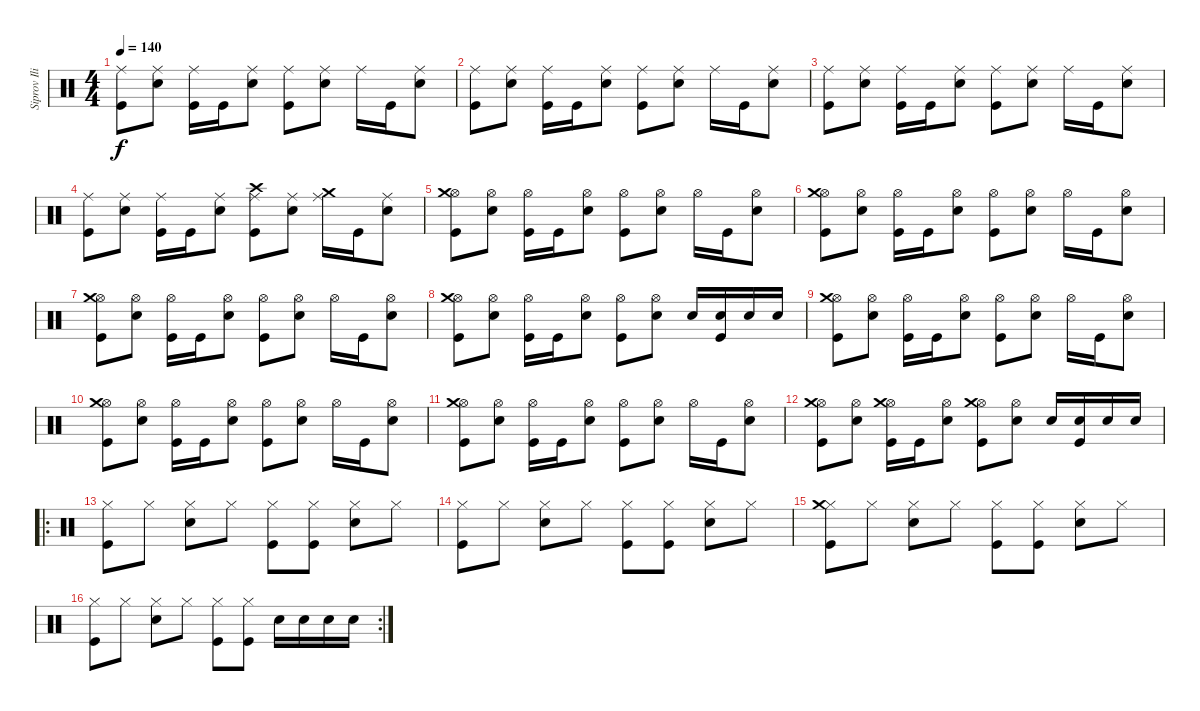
\track ("Siprov Iliya (DRUMS)" "Siprov Ili") {instrument percussion}
\staff {score}
\articulation defaults
\ts (4 4)
\tempo 140
\clef neutral
\ks c
("Ride (middle)" "Kick (hit)").8{dy f} ("Ride (middle)" "Electric Snare (hit)").8 ("Ride (middle)" "Kick (hit)").16 "Kick (hit)".16 ("Ride (middle)" "Electric Snare (hit)").8 ("Ride (middle)" "Kick (hit)").8 ("Ride (middle)" "Electric Snare (hit)").8 "Ride (middle)".16 "Kick (hit)".16 ("Ride (middle)" "Electric Snare (hit)").8 |
("Ride (middle)" "Kick (hit)").8 ("Ride (middle)" "Electric Snare (hit)").8 ("Ride (middle)" "Kick (hit)").16 "Kick (hit)".16 ("Ride (middle)" "Electric Snare (hit)").8 ("Ride (middle)" "Kick (hit)").8 ("Ride (middle)" "Electric Snare (hit)").8 "Ride (middle)".16 "Kick (hit)".16 ("Ride (middle)" "Electric Snare (hit)").8 |
("Ride (middle)" "Kick (hit)").8 ("Ride (middle)" "Electric Snare (hit)").8 ("Ride (middle)" "Kick (hit)").16 "Kick (hit)".16 ("Ride (middle)" "Electric Snare (hit)").8 ("Ride (middle)" "Kick (hit)").8 ("Ride (middle)" "Electric Snare (hit)").8 "Ride (middle)".16 "Kick (hit)".16 ("Ride (middle)" "Electric Snare (hit)").8 |
("Ride (middle)" "Kick (hit)").8 ("Ride (middle)" "Electric Snare (hit)").8 ("Ride (middle)" "Kick (hit)").16 "Kick (hit)".16 ("Ride (middle)" "Electric Snare (hit)").8 ("Ride (middle)" "Crash high (hit)" "Kick (hit)").8 ("Ride (middle)" "Electric Snare (hit)").8 ("Ride (middle)" "Crash medium (hit)").16 "Kick (hit)".16 ("Ride (middle)" "Electric Snare (hit)").8 |
("Hi-Hat (open)" "Crash medium (hit)" "Kick (hit)").8 ("Hi-Hat (open)" "Electric Snare (hit)").8 ("Hi-Hat (open)" "Kick (hit)").16 "Kick (hit)".16 ("Hi-Hat (open)" "Electric Snare (hit)").8 ("Hi-Hat (open)" "Kick (hit)").8 ("Hi-Hat (open)" "Electric Snare (hit)").8 "Hi-Hat (open)".16 "Kick (hit)".16 ("Hi-Hat (open)" "Electric Snare (hit)").8 |
("Hi-Hat (open)" "Crash medium (hit)" "Kick (hit)").8 ("Hi-Hat (open)" "Electric Snare (hit)").8 ("Hi-Hat (open)" "Kick (hit)").16 "Kick (hit)".16 ("Hi-Hat (open)" "Electric Snare (hit)").8 ("Hi-Hat (open)" "Kick (hit)").8 ("Hi-Hat (open)" "Electric Snare (hit)").8 "Hi-Hat (open)".16 "Kick (hit)".16 ("Hi-Hat (open)" "Electric Snare (hit)").8 |
("Hi-Hat (open)" "Crash medium (hit)" "Kick (hit)").8 ("Hi-Hat (open)" "Electric Snare (hit)").8 ("Hi-Hat (open)" "Kick (hit)").16 "Kick (hit)".16 ("Hi-Hat (open)" "Electric Snare (hit)").8 ("Hi-Hat (open)" "Kick (hit)").8 ("Hi-Hat (open)" "Electric Snare (hit)").8 "Hi-Hat (open)".16 "Kick (hit)".16 ("Hi-Hat (open)" "Electric Snare (hit)").8 |
("Hi-Hat (open)" "Crash medium (hit)" "Kick (hit)").8 ("Hi-Hat (open)" "Electric Snare (hit)").8 ("Hi-Hat (open)" "Kick (hit)").16 "Kick (hit)".16 ("Hi-Hat (open)" "Electric Snare (hit)").8 ("Hi-Hat (open)" "Kick (hit)").8 ("Hi-Hat (open)" "Electric Snare (hit)").8 "Electric Snare (hit)".16 ("Electric Snare (hit)" "Kick (hit)").16 "Electric Snare (hit)".16 "Electric Snare (hit)".16 |
("Hi-Hat (open)" "Crash medium (hit)" "Kick (hit)").8 ("Hi-Hat (open)" "Electric Snare (hit)").8 ("Hi-Hat (open)" "Kick (hit)").16 "Kick (hit)".16 ("Hi-Hat (open)" "Electric Snare (hit)").8 ("Hi-Hat (open)" "Kick (hit)").8 ("Hi-Hat (open)" "Electric Snare (hit)").8 "Hi-Hat (open)".16 "Kick (hit)".16 ("Hi-Hat (open)" "Electric Snare (hit)").8 |
("Hi-Hat (open)" "Crash medium (hit)" "Kick (hit)").8 ("Hi-Hat (open)" "Electric Snare (hit)").8 ("Hi-Hat (open)" "Kick (hit)").16 "Kick (hit)".16 ("Hi-Hat (open)" "Electric Snare (hit)").8 ("Hi-Hat (open)" "Kick (hit)").8 ("Hi-Hat (open)" "Electric Snare (hit)").8 "Hi-Hat (open)".16 "Kick (hit)".16 ("Hi-Hat (open)" "Electric Snare (hit)").8 |
("Hi-Hat (open)" "Crash medium (hit)" "Kick (hit)").8 ("Hi-Hat (open)" "Electric Snare (hit)").8 ("Hi-Hat (open)" "Kick (hit)").16 "Kick (hit)".16 ("Hi-Hat (open)" "Electric Snare (hit)").8 ("Hi-Hat (open)" "Kick (hit)").8 ("Hi-Hat (open)" "Electric Snare (hit)").8 "Hi-Hat (open)".16 "Kick (hit)".16 ("Hi-Hat (open)" "Electric Snare (hit)").8 |
("Hi-Hat (open)" "Crash medium (hit)" "Kick (hit)").8 ("Hi-Hat (open)" "Electric Snare (hit)").8 ("Hi-Hat (open)" "Crash medium (hit)" "Kick (hit)").16 "Kick (hit)".16 ("Hi-Hat (open)" "Electric Snare (hit)").8 ("Hi-Hat (open)" "Crash medium (hit)" "Kick (hit)").8 ("Hi-Hat (open)" "Electric Snare (hit)").8 "Electric Snare (hit)".16 ("Electric Snare (hit)" "Kick (hit)").16 "Electric Snare (hit)".16 "Electric Snare (hit)".16 |
\ro
("Hi-Hat (closed)" "Kick (hit)").8 "Hi-Hat (closed)".8 ("Hi-Hat (closed)" "Electric Snare (hit)").8 "Hi-Hat (closed)".8 ("Hi-Hat (closed)" "Kick (hit)").8 ("Hi-Hat (closed)" "Kick (hit)").8 ("Hi-Hat (closed)" "Electric Snare (hit)").8 "Hi-Hat (closed)".8 |
("Hi-Hat (closed)" "Kick (hit)").8 "Hi-Hat (closed)".8 ("Hi-Hat (closed)" "Electric Snare (hit)").8 "Hi-Hat (closed)".8 ("Hi-Hat (closed)" "Kick (hit)").8 ("Hi-Hat (closed)" "Kick (hit)").8 ("Hi-Hat (closed)" "Electric Snare (hit)").8 "Hi-Hat (closed)".8 |
("Hi-Hat (closed)" "Crash medium (hit)" "Kick (hit)").8 "Hi-Hat (closed)".8 ("Hi-Hat (closed)" "Electric Snare (hit)").8 "Hi-Hat (closed)".8 ("Hi-Hat (closed)" "Kick (hit)").8 ("Hi-Hat (closed)" "Kick (hit)").8 ("Hi-Hat (closed)" "Electric Snare (hit)").8 "Hi-Hat (closed)".8 |
\rc 2
("Hi-Hat (closed)" "Kick (hit)").8 "Hi-Hat (closed)".8 ("Hi-Hat (closed)" "Electric Snare (hit)").8 "Hi-Hat (closed)".8 ("Hi-Hat (closed)" "Kick (hit)").8 ("Hi-Hat (closed)" "Kick (hit)").8 "Electric Snare (hit)".16 "Electric Snare (hit)".16 "Electric Snare (hit)".16 "Electric Snare (hit)".16
